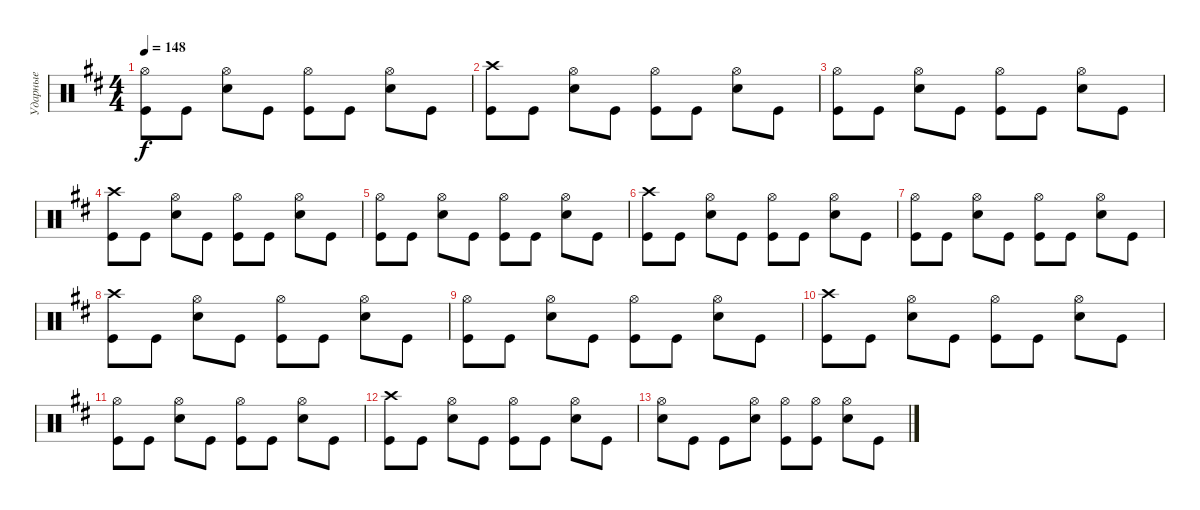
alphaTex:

\track ("Ударные" "Ударные") {instrument percussion}
\staff {score}
\articulation defaults
\ts (4 4)
\tempo 148
\clef neutral
\ks bminor
("Hi-Hat (open)" "Kick (hit)").8{dy f} "Kick (hit)".8 ("Snare (hit) 2" "Hi-Hat (open)").8 "Kick (hit)".8 ("Kick (hit)" "Hi-Hat (open)").8 "Kick (hit)".8 ("Snare (hit) 2" "Hi-Hat (open)").8 "Kick (hit)".8 |
("Crash high (hit)" "Kick (hit)").8 "Kick (hit)".8 ("Snare (hit) 2" "Hi-Hat (open)").8 "Kick (hit)".8 ("Kick (hit)" "Hi-Hat (open)").8 "Kick (hit)".8 ("Snare (hit) 2" "Hi-Hat (open)").8 "Kick (hit)".8 |
("Hi-Hat (open)" "Kick (hit)").8 "Kick (hit)".8 ("Snare (hit) 2" "Hi-Hat (open)").8 "Kick (hit)".8 ("Kick (hit)" "Hi-Hat (open)").8 "Kick (hit)".8 ("Snare (hit) 2" "Hi-Hat (open)").8 "Kick (hit)".8 |
("Crash high (hit)" "Kick (hit)").8 "Kick (hit)".8 ("Snare (hit) 2" "Hi-Hat (open)").8 "Kick (hit)".8 ("Kick (hit)" "Hi-Hat (open)").8 "Kick (hit)".8 ("Snare (hit) 2" "Hi-Hat (open)").8 "Kick (hit)".8 |
("Hi-Hat (open)" "Kick (hit)").8 "Kick (hit)".8 ("Snare (hit) 2" "Hi-Hat (open)").8 "Kick (hit)".8 ("Kick (hit)" "Hi-Hat (open)").8 "Kick (hit)".8 ("Snare (hit) 2" "Hi-Hat (open)").8 "Kick (hit)".8 |
("Crash high (hit)" "Kick (hit)").8 "Kick (hit)".8 ("Snare (hit) 2" "Hi-Hat (open)").8 "Kick (hit)".8 ("Kick (hit)" "Hi-Hat (open)").8 "Kick (hit)".8 ("Snare (hit) 2" "Hi-Hat (open)").8 "Kick (hit)".8 |
("Hi-Hat (open)" "Kick (hit)").8 "Kick (hit)".8 ("Snare (hit) 2" "Hi-Hat (open)").8 "Kick (hit)".8 ("Kick (hit)" "Hi-Hat (open)").8 "Kick (hit)".8 ("Snare (hit) 2" "Hi-Hat (open)").8 "Kick (hit)".8 |
("Crash high (hit)" "Kick (hit)").8 "Kick (hit)".8 ("Snare (hit) 2" "Hi-Hat (open)").8 "Kick (hit)".8 ("Kick (hit)" "Hi-Hat (open)").8 "Kick (hit)".8 ("Snare (hit) 2" "Hi-Hat (open)").8 "Kick (hit)".8 |
("Hi-Hat (open)" "Kick (hit)").8 "Kick (hit)".8 ("Snare (hit) 2" "Hi-Hat (open)").8 "Kick (hit)".8 ("Kick (hit)" "Hi-Hat (open)").8 "Kick (hit)".8 ("Snare (hit) 2" "Hi-Hat (open)").8 "Kick (hit)".8 |
("Crash high (hit)" "Kick (hit)").8{volume 0} "Kick (hit)".8 ("Snare (hit) 2" "Hi-Hat (open)").8 "Kick (hit)".8 ("Kick (hit)" "Hi-Hat (open)").8 "Kick (hit)".8 ("Snare (hit) 2" "Hi-Hat (open)").8 "Kick (hit)".8 |
("Hi-Hat (open)" "Kick (hit)").8 "Kick (hit)".8 ("Snare (hit) 2" "Hi-Hat (open)").8 "Kick (hit)".8 ("Kick (hit)" "Hi-Hat (open)").8 "Kick (hit)".8 ("Snare (hit) 2" "Hi-Hat (open)").8 "Kick (hit)".8 |
("Crash high (hit)" "Kick (hit)").8 "Kick (hit)".8 ("Snare (hit) 2" "Hi-Hat (open)").8 "Kick (hit)".8 ("Kick (hit)" "Hi-Hat (open)").8 "Kick (hit)".8 ("Snare (hit) 2" "Hi-Hat (open)").8 "Kick (hit)".8 |
("Snare (hit) 2" "Hi-Hat (open)").8 "Kick (hit)".8 "Kick (hit)".8 ("Snare (hit) 2" "Hi-Hat (open)").8 ("Kick (hit)" "Hi-Hat (open)").8 ("Kick (hit)" "Hi-Hat (open)").8 ("Snare (hit) 2" "Hi-Hat (open)").8 "Kick (hit)".8
